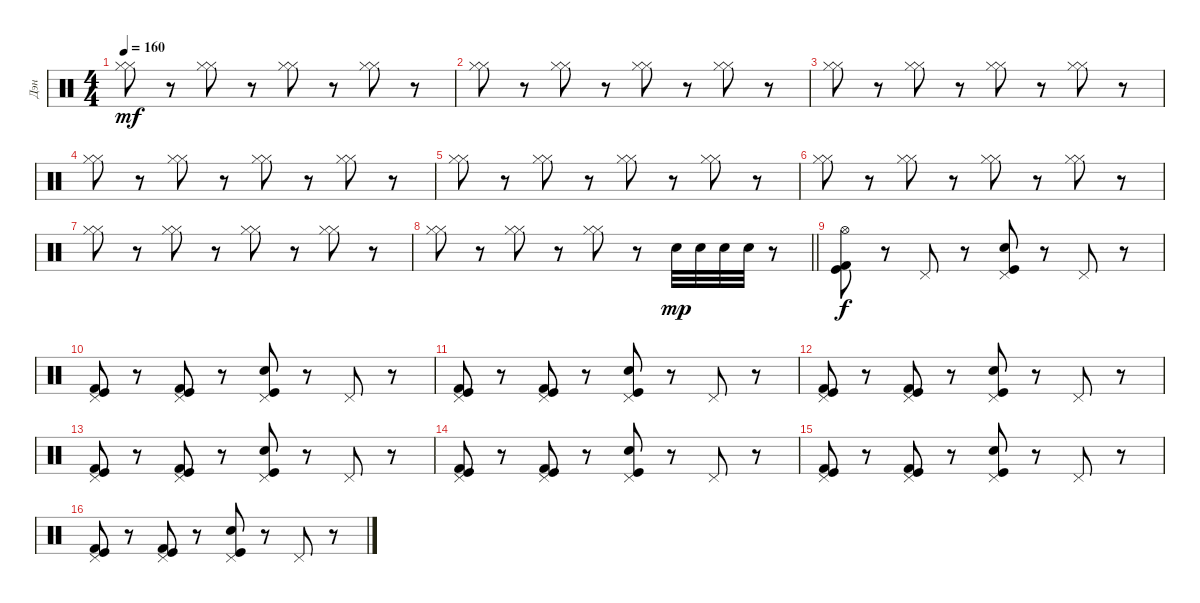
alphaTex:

\track ("Дэн" "Дэн") {instrument percussion}
\staff {score}
\articulation defaults
\ts (4 4)
\tempo 160
\clef neutral
\ks c
("Hi-Hat (closed)" "Hi-Hat (closed)").8{dy mf} r.8 ("Hi-Hat (closed)" "Hi-Hat (closed)").8 r.8 ("Hi-Hat (closed)" "Hi-Hat (closed)").8 r.8 ("Hi-Hat (closed)" "Hi-Hat (closed)").8 r.8 |
("Hi-Hat (closed)" "Hi-Hat (closed)").8 r.8 ("Hi-Hat (closed)" "Hi-Hat (closed)").8 r.8 ("Hi-Hat (closed)" "Hi-Hat (closed)").8 r.8 ("Hi-Hat (closed)" "Hi-Hat (closed)").8 r.8 |
("Hi-Hat (closed)" "Hi-Hat (closed)").8 r.8 ("Hi-Hat (closed)" "Hi-Hat (closed)").8 r.8 ("Hi-Hat (closed)" "Hi-Hat (closed)").8 r.8 ("Hi-Hat (closed)" "Hi-Hat (closed)").8 r.8 |
("Hi-Hat (closed)" "Hi-Hat (closed)").8 r.8 ("Hi-Hat (closed)" "Hi-Hat (closed)").8 r.8 ("Hi-Hat (closed)" "Hi-Hat (closed)").8 r.8 ("Hi-Hat (closed)" "Hi-Hat (closed)").8 r.8 |
("Hi-Hat (closed)" "Hi-Hat (closed)").8 r.8 ("Hi-Hat (closed)" "Hi-Hat (closed)").8 r.8 ("Hi-Hat (closed)" "Hi-Hat (closed)").8 r.8 ("Hi-Hat (closed)" "Hi-Hat (closed)").8 r.8 |
("Hi-Hat (closed)" "Hi-Hat (closed)").8 r.8 ("Hi-Hat (closed)" "Hi-Hat (closed)").8 r.8 ("Hi-Hat (closed)" "Hi-Hat (closed)").8 r.8 ("Hi-Hat (closed)" "Hi-Hat (closed)").8 r.8 |
("Hi-Hat (closed)" "Hi-Hat (closed)").8 r.8 ("Hi-Hat (closed)" "Hi-Hat (closed)").8 r.8 ("Hi-Hat (closed)" "Hi-Hat (closed)").8 r.8 ("Hi-Hat (closed)" "Hi-Hat (closed)").8 r.8 |
\barLineRight lightlight
("Hi-Hat (closed)" "Hi-Hat (closed)").8 r.8 ("Hi-Hat (closed)" "Hi-Hat (closed)").8 r.8 ("Hi-Hat (closed)" "Hi-Hat (closed)").8 r.8 "Electric Snare (hit)".32{dy mp} "Electric Snare (hit)".32 "Electric Snare (hit)".32 "Electric Snare (hit)".32 r.8 |
("Hi-Hat (open)" "Kick (hit)" "Kick (hit) 2").8{dy f} r.8 "Pedal Hi-Hat (hit)".8 r.8 ("Pedal Hi-Hat (hit)" "Electric Snare (hit)" "Kick (hit)").8 r.8 "Pedal Hi-Hat (hit)".8 r.8 |
("Pedal Hi-Hat (hit)" "Kick (hit)" "Kick (hit) 2").8 r.8 ("Pedal Hi-Hat (hit)" "Kick (hit)" "Kick (hit) 2").8 r.8 ("Pedal Hi-Hat (hit)" "Electric Snare (hit)" "Kick (hit)").8 r.8 "Pedal Hi-Hat (hit)".8 r.8 |
("Pedal Hi-Hat (hit)" "Kick (hit)" "Kick (hit) 2").8 r.8 ("Pedal Hi-Hat (hit)" "Kick (hit)" "Kick (hit) 2").8 r.8 ("Pedal Hi-Hat (hit)" "Electric Snare (hit)" "Kick (hit)").8 r.8 "Pedal Hi-Hat (hit)".8 r.8 |
("Pedal Hi-Hat (hit)" "Kick (hit)" "Kick (hit) 2").8 r.8 ("Pedal Hi-Hat (hit)" "Kick (hit)" "Kick (hit) 2").8 r.8 ("Pedal Hi-Hat (hit)" "Electric Snare (hit)" "Kick (hit)").8 r.8 "Pedal Hi-Hat (hit)".8 r.8 |
("Pedal Hi-Hat (hit)" "Kick (hit)" "Kick (hit) 2").8 r.8 ("Pedal Hi-Hat (hit)" "Kick (hit)" "Kick (hit) 2").8 r.8 ("Pedal Hi-Hat (hit)" "Electric Snare (hit)" "Kick (hit)").8 r.8 "Pedal Hi-Hat (hit)".8 r.8 |
("Pedal Hi-Hat (hit)" "Kick (hit)" "Kick (hit) 2").8 r.8 ("Pedal Hi-Hat (hit)" "Kick (hit)" "Kick (hit) 2").8 r.8 ("Pedal Hi-Hat (hit)" "Electric Snare (hit)" "Kick (hit)").8 r.8 "Pedal Hi-Hat (hit)".8 r.8 |
("Pedal Hi-Hat (hit)" "Kick (hit)" "Kick (hit) 2").8 r.8 ("Pedal Hi-Hat (hit)" "Kick (hit)" "Kick (hit) 2").8 r.8 ("Pedal Hi-Hat (hit)" "Electric Snare (hit)" "Kick (hit)").8 r.8 "Pedal Hi-Hat (hit)".8 r.8 |
("Pedal Hi-Hat (hit)" "Kick (hit)" "Kick (hit) 2").8 r.8 ("Pedal Hi-Hat (hit)" "Kick (hit)" "Kick (hit) 2").8 r.8 ("Pedal Hi-Hat (hit)" "Electric Snare (hit)" "Kick (hit)").8 r.8 "Pedal Hi-Hat (hit)".8 r.8
